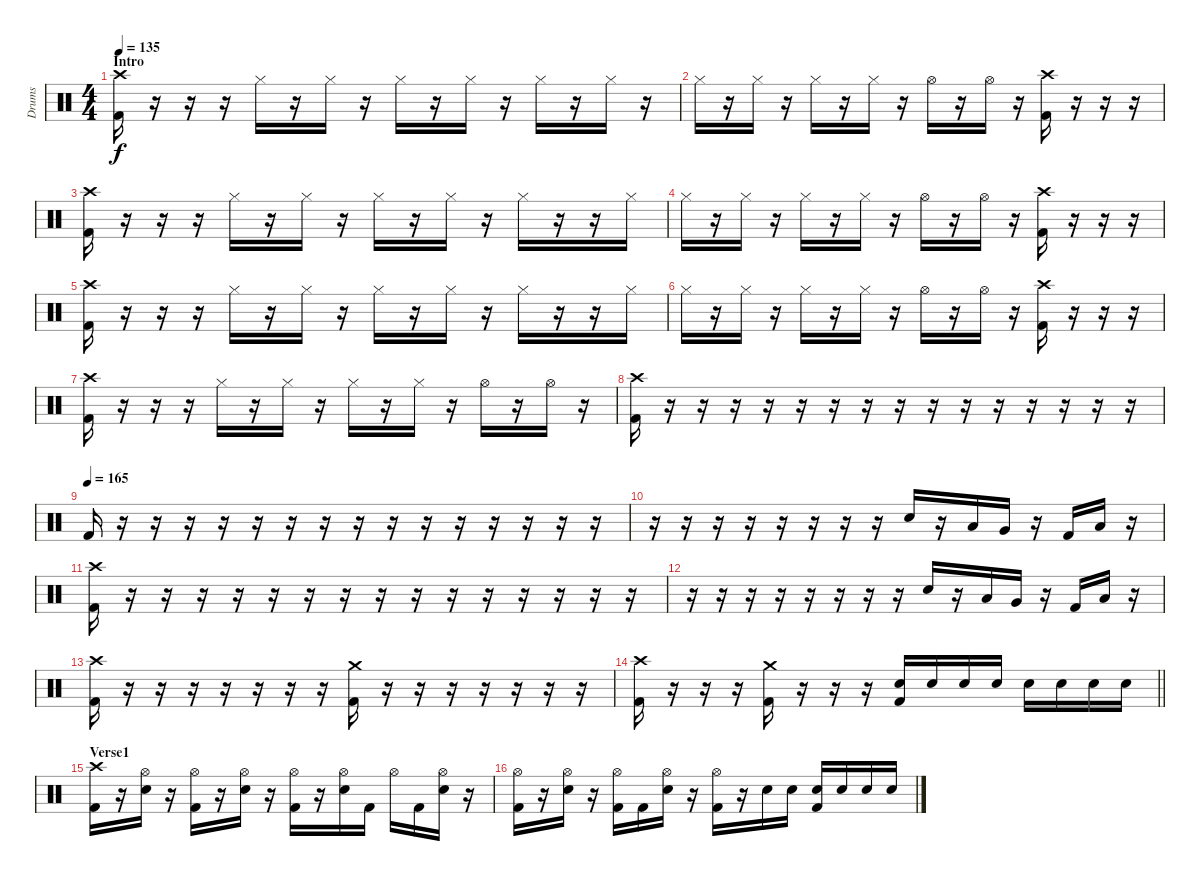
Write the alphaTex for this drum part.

\track ("Drums" "Drums") {instrument percussion}
\staff {score}
\articulation defaults
\ts (4 4)
\section ("" "Intro")
\tempo 135
\clef neutral
\ks c
("Crash high (hit)" "Kick (hit) 2").16{dy f} r.16 r.16 r.16 "Hi-Hat (closed)".16 r.16 "Hi-Hat (closed)".16 r.16 "Hi-Hat (closed)".16 r.16 "Hi-Hat (closed)".16 r.16 "Hi-Hat (closed)".16 r.16 "Hi-Hat (closed)".16 r.16 |
"Hi-Hat (closed)".16 r.16 "Hi-Hat (closed)".16 r.16 "Hi-Hat (closed)".16 r.16 "Hi-Hat (closed)".16 r.16 "Hi-Hat (open)".16 r.16 "Hi-Hat (open)".16 r.16 ("Crash high (hit)" "Kick (hit) 2").16 r.16 r.16 r.16 |
("Crash high (hit)" "Kick (hit) 2").16 r.16 r.16 r.16 "Hi-Hat (closed)".16 r.16 "Hi-Hat (closed)".16 r.16 "Hi-Hat (closed)".16 r.16 "Hi-Hat (closed)".16 r.16 "Hi-Hat (closed)".16 r.16 r.16 "Hi-Hat (closed)".16 |
"Hi-Hat (closed)".16 r.16 "Hi-Hat (closed)".16 r.16 "Hi-Hat (closed)".16 r.16 "Hi-Hat (closed)".16 r.16 "Hi-Hat (open)".16 r.16 "Hi-Hat (open)".16 r.16 ("Crash high (hit)" "Kick (hit) 2").16 r.16 r.16 r.16 |
("Crash high (hit)" "Kick (hit) 2").16 r.16 r.16 r.16 "Hi-Hat (closed)".16 r.16 "Hi-Hat (closed)".16 r.16 "Hi-Hat (closed)".16 r.16 "Hi-Hat (closed)".16 r.16 "Hi-Hat (closed)".16 r.16 r.16 "Hi-Hat (closed)".16 |
"Hi-Hat (closed)".16 r.16 "Hi-Hat (closed)".16 r.16 "Hi-Hat (closed)".16 r.16 "Hi-Hat (closed)".16 r.16 "Hi-Hat (open)".16 r.16 "Hi-Hat (open)".16 r.16 ("Crash high (hit)" "Kick (hit) 2").16 r.16 r.16 r.16 |
("Crash high (hit)" "Kick (hit) 2").16 r.16 r.16 r.16 "Hi-Hat (closed)".16 r.16 "Hi-Hat (closed)".16 r.16 "Hi-Hat (closed)".16 r.16 "Hi-Hat (closed)".16 r.16 "Hi-Hat (open)".16 r.16 "Hi-Hat (open)".16 r.16 |
("Crash high (hit)" "Kick (hit) 2").16 r.16 r.16 r.16 r.16 r.16 r.16 r.16 r.16 r.16 r.16 r.16 r.16 r.16 r.16 r.16 |
\tempo (165)
"Kick (hit) 2".16 r.16 r.16 r.16 r.16 r.16 r.16 r.16 r.16 r.16 r.16 r.16 r.16 r.16 r.16 r.16 |
r.16 r.16 r.16 r.16 r.16 r.16 r.16 r.16 "Electric Snare (hit)".16 r.16 "Low Tom (hit)".16 "Very Low Tom (hit)".16 r.16 "Kick (hit) 2".16 "Low Tom (hit)".16 r.16 |
("Crash high (hit)" "Kick (hit) 2").16 r.16 r.16 r.16 r.16 r.16 r.16 r.16 r.16 r.16 r.16 r.16 r.16 r.16 r.16 r.16 |
r.16 r.16 r.16 r.16 r.16 r.16 r.16 r.16 "Electric Snare (hit)".16 r.16 "Low Tom (hit)".16 "Very Low Tom (hit)".16 r.16 "Kick (hit) 2".16 "Low Tom (hit)".16 r.16 |
("Crash high (hit)" "Kick (hit) 2").16 r.16 r.16 r.16 r.16 r.16 r.16 r.16 ("Crash medium (hit)" "Kick (hit) 2").16 r.16 r.16 r.16 r.16 r.16 r.16 r.16 |
\barLineRight lightlight
("Crash high (hit)" "Kick (hit) 2").16 r.16 r.16 r.16 ("Crash medium (hit)" "Kick (hit) 2").16 r.16 r.16 r.16 ("Electric Snare (hit)" "Kick (hit) 2").16 "Electric Snare (hit)".16 "Electric Snare (hit)".16 "Electric Snare (hit)".16 "Electric Snare (hit)".16 "Electric Snare (hit)".16 "Electric Snare (hit)".16 "Electric Snare (hit)".16 |
\section ("" "Verse1")
("Crash high (hit)" "Kick (hit) 2").16 r.16 ("Hi-Hat (open)" "Electric Snare (hit)").16 r.16 ("Hi-Hat (open)" "Kick (hit) 2").16 r.16 ("Hi-Hat (open)" "Electric Snare (hit)").16 r.16 ("Hi-Hat (open)" "Kick (hit) 2").16 r.16 ("Hi-Hat (open)" "Electric Snare (hit)").16 "Kick (hit) 2".16 "Hi-Hat (open)".16 "Kick (hit) 2".16 ("Hi-Hat (open)" "Electric Snare (hit)").16 r.16 |
("Hi-Hat (open)" "Kick (hit) 2").16 r.16 ("Hi-Hat (open)" "Electric Snare (hit)").16 r.16 ("Hi-Hat (open)" "Kick (hit) 2").16 "Kick (hit) 2".16 ("Hi-Hat (open)" "Electric Snare (hit)").16 r.16 ("Hi-Hat (open)" "Kick (hit) 2").16 r.16 "Electric Snare (hit)".16 "Electric Snare (hit)".16 ("Electric Snare (hit)" "Kick (hit) 2").16 "Electric Snare (hit)".16 "Electric Snare (hit)".16 "Electric Snare (hit)".16
